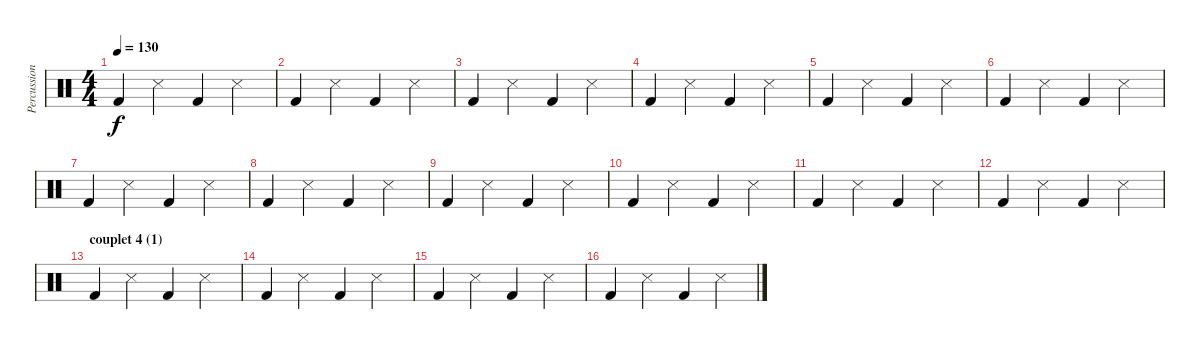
\track ("Percussions" "Percussion") {instrument percussion}
\staff {score}
\articulation defaults
\ts (4 4)
\tempo 130
\clef neutral
\ks c "Kick (hit) 2".4{dy f} "Snare (side stick) 3".4 "Kick (hit) 2".4 "Snare (side stick) 3".4
|
"Kick (hit) 2".4 "Snare (side stick) 3".4 "Kick (hit) 2".4 "Snare (side stick) 3".4 |
"Kick (hit) 2".4 "Snare (side stick) 3".4 "Kick (hit) 2".4 "Snare (side stick) 3".4 |
"Kick (hit) 2".4 "Snare (side stick) 3".4 "Kick (hit) 2".4 "Snare (side stick) 3".4 |
"Kick (hit) 2".4 "Snare (side stick) 3".4 "Kick (hit) 2".4 "Snare (side stick) 3".4 |
"Kick (hit) 2".4 "Snare (side stick) 3".4 "Kick (hit) 2".4 "Snare (side stick) 3".4 |
"Kick (hit) 2".4 "Snare (side stick) 3".4 "Kick (hit) 2".4 "Snare (side stick) 3".4 |
"Kick (hit) 2".4 "Snare (side stick) 3".4 "Kick (hit) 2".4 "Snare (side stick) 3".4 |
"Kick (hit) 2".4 "Snare (side stick) 3".4 "Kick (hit) 2".4 "Snare (side stick) 3".4 |
"Kick (hit) 2".4 "Snare (side stick) 3".4 "Kick (hit) 2".4 "Snare (side stick) 3".4 |
"Kick (hit) 2".4 "Snare (side stick) 3".4 "Kick (hit) 2".4 "Snare (side stick) 3".4 |
"Kick (hit) 2".4 "Snare (side stick) 3".4 "Kick (hit) 2".4 "Snare (side stick) 3".4 |
\section ("" "couplet 4 (1)")
"Kick (hit) 2".4 "Snare (side stick) 3".4 "Kick (hit) 2".4 "Snare (side stick) 3".4 |
"Kick (hit) 2".4 "Snare (side stick) 3".4 "Kick (hit) 2".4 "Snare (side stick) 3".4 |
"Kick (hit) 2".4 "Snare (side stick) 3".4 "Kick (hit) 2".4 "Snare (side stick) 3".4 |
"Kick (hit) 2".4 "Snare (side stick) 3".4 "Kick (hit) 2".4 "Snare (side stick) 3".4
